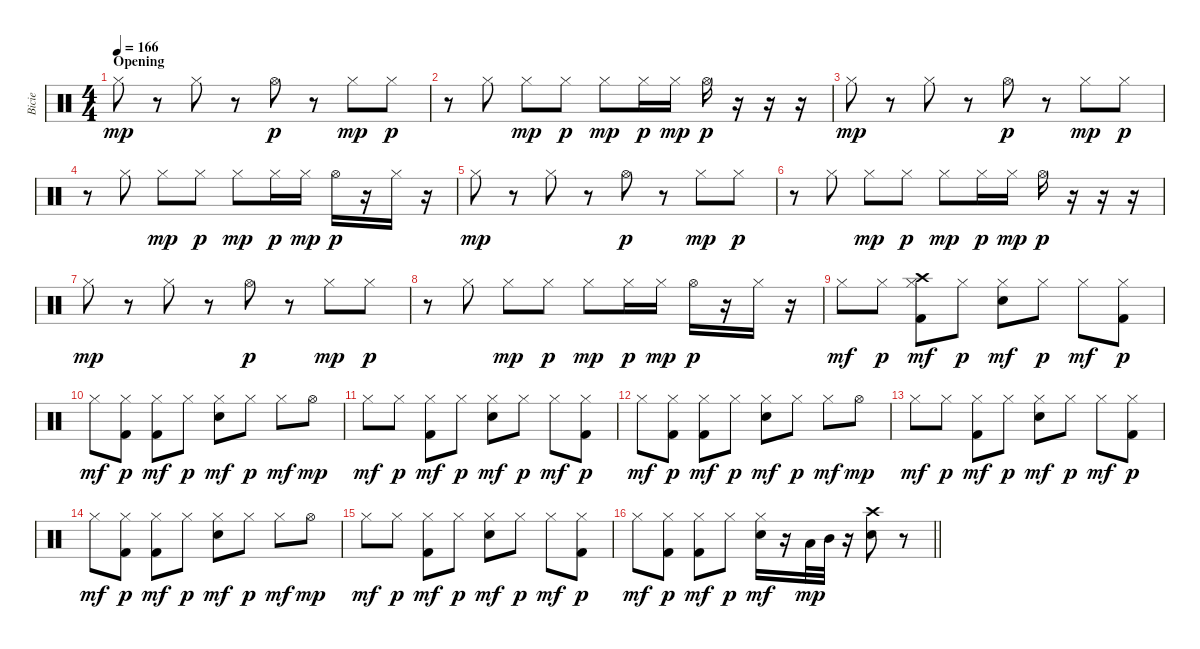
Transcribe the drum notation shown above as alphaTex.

\track ("Bicie" "Bicie") {instrument percussion}
\staff {score}
\articulation defaults
\ts (4 4)
\section ("" "Opening")
\tempo 166
\clef neutral
\ks c "Hi-Hat (closed)".8{dy mp}
r.8 "Hi-Hat (closed)".8 r.8 "Hi-Hat (open)".8{dy p} r.8 "Hi-Hat (closed)".8{dy mp} "Hi-Hat (closed)".8{dy p} |
r.8 "Hi-Hat (closed)".8 "Hi-Hat (closed)".8{dy mp} "Hi-Hat (closed)".8{dy p} "Hi-Hat (closed)".8{dy mp} "Hi-Hat (closed)".16{dy p} "Hi-Hat (closed)".16{dy mp} "Hi-Hat (open)".16{dy p} r.16 r.16 r.16 |
"Hi-Hat (closed)".8{dy mp} r.8 "Hi-Hat (closed)".8 r.8 "Hi-Hat (open)".8{dy p} r.8 "Hi-Hat (closed)".8{dy mp} "Hi-Hat (closed)".8{dy p} |
r.8 "Hi-Hat (closed)".8 "Hi-Hat (closed)".8{dy mp} "Hi-Hat (closed)".8{dy p} "Hi-Hat (closed)".8{dy mp} "Hi-Hat (closed)".16{dy p} "Hi-Hat (closed)".16{dy mp} "Hi-Hat (open)".16{dy p} r.16 "Hi-Hat (closed)".16 r.16 |
"Hi-Hat (closed)".8{dy mp} r.8 "Hi-Hat (closed)".8 r.8 "Hi-Hat (open)".8{dy p} r.8 "Hi-Hat (closed)".8{dy mp} "Hi-Hat (closed)".8{dy p} |
r.8 "Hi-Hat (closed)".8 "Hi-Hat (closed)".8{dy mp} "Hi-Hat (closed)".8{dy p} "Hi-Hat (closed)".8{dy mp} "Hi-Hat (closed)".16{dy p} "Hi-Hat (closed)".16{dy mp} "Hi-Hat (open)".16{dy p} r.16 r.16 r.16 |
"Hi-Hat (closed)".8{dy mp} r.8 "Hi-Hat (closed)".8 r.8 "Hi-Hat (open)".8{dy p} r.8 "Hi-Hat (closed)".8{dy mp} "Hi-Hat (closed)".8{dy p} |
r.8 "Hi-Hat (closed)".8 "Hi-Hat (closed)".8{dy mp} "Hi-Hat (closed)".8{dy p} "Hi-Hat (closed)".8{dy mp} "Hi-Hat (closed)".16{dy p} "Hi-Hat (closed)".16{dy mp} "Hi-Hat (open)".16{dy p} r.16 "Hi-Hat (closed)".16 r.16 |
"Hi-Hat (closed)".8{dy mf} "Hi-Hat (closed)".8{dy p} ("Crash high (hit)" "Kick (hit) 2" "Hi-Hat (closed)").8{dy mf} "Hi-Hat (closed)".8{dy p} ("Electric Snare (hit)" "Hi-Hat (closed)").8{dy mf} "Hi-Hat (closed)".8{dy p} "Hi-Hat (closed)".8{dy mf} ("Kick (hit) 2" "Hi-Hat (closed)").8{dy p} |
"Hi-Hat (closed)".8{dy mf} ("Kick (hit) 2" "Hi-Hat (closed)").8{dy p} ("Kick (hit) 2" "Hi-Hat (closed)").8{dy mf} "Hi-Hat (closed)".8{dy p} ("Electric Snare (hit)" "Hi-Hat (closed)").8{dy mf} "Hi-Hat (closed)".8{dy p} "Hi-Hat (closed)".8{dy mf} "Hi-Hat (open)".8{dy mp} |
"Hi-Hat (closed)".8{dy mf} "Hi-Hat (closed)".8{dy p} ("Kick (hit) 2" "Hi-Hat (closed)").8{dy mf} "Hi-Hat (closed)".8{dy p} ("Electric Snare (hit)" "Hi-Hat (closed)").8{dy mf} "Hi-Hat (closed)".8{dy p} "Hi-Hat (closed)".8{dy mf} ("Kick (hit) 2" "Hi-Hat (closed)").8{dy p} |
"Hi-Hat (closed)".8{dy mf} ("Kick (hit) 2" "Hi-Hat (closed)").8{dy p} ("Kick (hit) 2" "Hi-Hat (closed)").8{dy mf} "Hi-Hat (closed)".8{dy p} ("Electric Snare (hit)" "Hi-Hat (closed)").8{dy mf} "Hi-Hat (closed)".8{dy p} "Hi-Hat (closed)".8{dy mf} "Hi-Hat (open)".8{dy mp} |
"Hi-Hat (closed)".8{dy mf} "Hi-Hat (closed)".8{dy p} ("Kick (hit) 2" "Hi-Hat (closed)").8{dy mf} "Hi-Hat (closed)".8{dy p} ("Electric Snare (hit)" "Hi-Hat (closed)").8{dy mf} "Hi-Hat (closed)".8{dy p} "Hi-Hat (closed)".8{dy mf} ("Kick (hit) 2" "Hi-Hat (closed)").8{dy p} |
"Hi-Hat (closed)".8{dy mf} ("Kick (hit) 2" "Hi-Hat (closed)").8{dy p} ("Kick (hit) 2" "Hi-Hat (closed)").8{dy mf} "Hi-Hat (closed)".8{dy p} ("Electric Snare (hit)" "Hi-Hat (closed)").8{dy mf} "Hi-Hat (closed)".8{dy p} "Hi-Hat (closed)".8{dy mf} "Hi-Hat (open)".8{dy mp} |
"Hi-Hat (closed)".8{dy mf} "Hi-Hat (closed)".8{dy p} ("Kick (hit) 2" "Hi-Hat (closed)").8{dy mf} "Hi-Hat (closed)".8{dy p} ("Electric Snare (hit)" "Hi-Hat (closed)").8{dy mf} "Hi-Hat (closed)".8{dy p} "Hi-Hat (closed)".8{dy mf} ("Kick (hit) 2" "Hi-Hat (closed)").8{dy p} |
\barLineRight lightlight "Hi-Hat (closed)".8{dy mf}
("Kick (hit) 2" "Hi-Hat (closed)").8{dy p} ("Kick (hit) 2" "Hi-Hat (closed)").8{dy mf} "Hi-Hat (closed)".8{dy p} ("Electric Snare (hit)" "Hi-Hat (closed)").16{dy mf} r.16 "Low Tom (hit)".32{dy mp} "Mid Tom (hit)".32 r.16 ("Electric Snare (hit)" "Crash high (hit)").8 r.8
